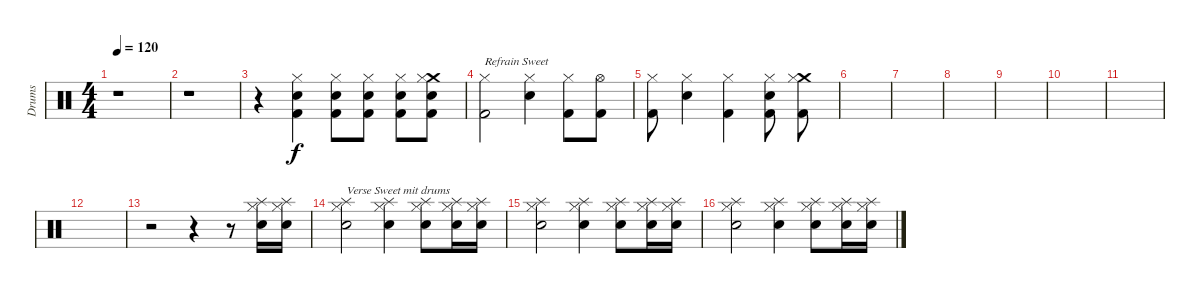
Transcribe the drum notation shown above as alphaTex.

\track ("Drums" "Drums") {instrument percussion}
\staff {score}
\articulation defaults
\ts (4 4)
\tempo 120
\clef neutral
\ks c
r.1{dy f} |
r.1 |
r.4 ("Kick (hit) 2" "Electric Snare (hit)" "Hi-Hat (closed)").4{volume 11} ("Kick (hit) 2" "Electric Snare (hit)" "Hi-Hat (closed)").8 ("Kick (hit) 2" "Electric Snare (hit)" "Hi-Hat (closed)").8 ("Kick (hit) 2" "Electric Snare (hit)" "Hi-Hat (closed)").8 ("Kick (hit) 2" "Crash medium (hit)" "Electric Snare (hit)" "Hi-Hat (closed)").8 |
("Kick (hit) 2" "Hi-Hat (closed)").2{txt "Refrain Sweet"} ("Electric Snare (hit)" "Hi-Hat (closed)").4 ("Kick (hit) 2" "Hi-Hat (closed)").8 ("Kick (hit) 2" "Hi-Hat (open)").8 |
("Kick (hit) 2" "Hi-Hat (closed)").8 ("Electric Snare (hit)" "Hi-Hat (closed)").4 ("Kick (hit) 2" "Hi-Hat (closed)").4 ("Kick (hit) 2" "Electric Snare (hit)" "Hi-Hat (closed)").8 ("Kick (hit) 2" "Crash medium (hit)" "Hi-Hat (closed)").8 |
|
|
|
|
|
|
|
r.2 r.4 r.8 ("Snare (hit) 2" "Hi-Hat (closed)" "Splash (hit)").16 ("Snare (hit) 2" "Hi-Hat (closed)" "Splash (hit)").16 |
("Snare (hit) 2" "Splash (hit)" "Hi-Hat (closed)").2{txt "Verse Sweet mit drums"} ("Snare (hit) 2" "Splash (hit)" "Hi-Hat (closed)").4 ("Snare (hit) 2" "Splash (hit)" "Hi-Hat (closed)").8 ("Snare (hit) 2" "Splash (hit)" "Hi-Hat (closed)").16 ("Snare (hit) 2" "Splash (hit)" "Hi-Hat (closed)").16 |
("Snare (hit) 2" "Splash (hit)" "Hi-Hat (closed)").2 ("Snare (hit) 2" "Splash (hit)" "Hi-Hat (closed)").4 ("Snare (hit) 2" "Splash (hit)" "Hi-Hat (closed)").8 ("Snare (hit) 2" "Splash (hit)" "Hi-Hat (closed)").16 ("Snare (hit) 2" "Splash (hit)" "Hi-Hat (closed)").16 |
("Snare (hit) 2" "Splash (hit)" "Hi-Hat (closed)").2 ("Snare (hit) 2" "Splash (hit)" "Hi-Hat (closed)").4 ("Snare (hit) 2" "Splash (hit)" "Hi-Hat (closed)").8 ("Snare (hit) 2" "Splash (hit)" "Hi-Hat (closed)").16 ("Snare (hit) 2" "Splash (hit)" "Hi-Hat (closed)").16
